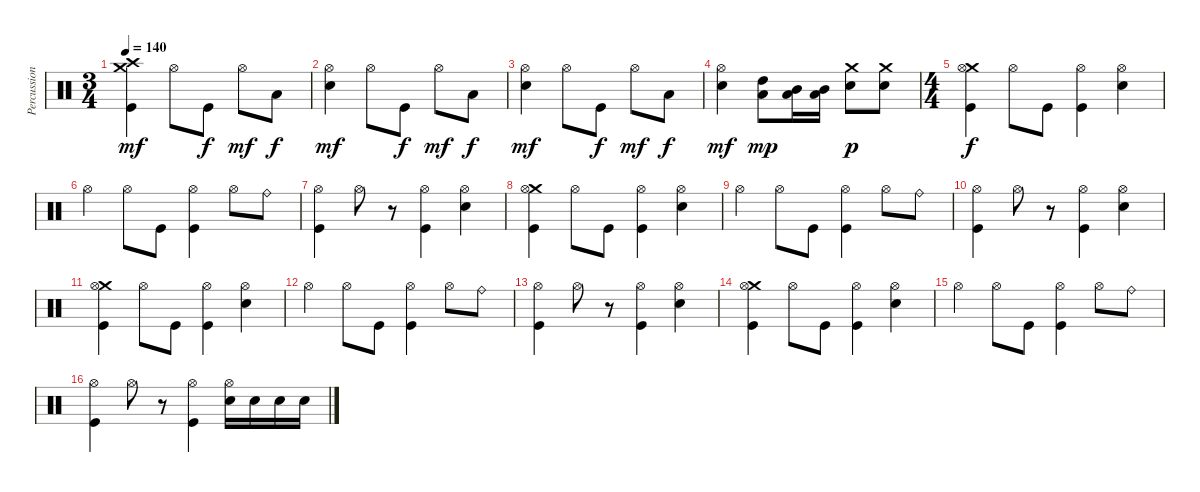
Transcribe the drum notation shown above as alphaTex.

\track ("Percussion" "Percussion") {instrument percussion}
\staff {score}
\articulation defaults
\ts (3 4)
\tempo 140
\clef neutral
\ks c
("Kick (hit)" "Crash high (hit)" "Crash medium (hit)").4{dy mf} "Hi-Hat (open)".8 "Kick (hit)".8{dy f} "Hi-Hat (open)".8{dy mf} "Low Floor Tom (hit)".8{dy f} |
("Electric Snare (hit)" "Hi-Hat (open)").4{dy mf} "Hi-Hat (open)".8 "Kick (hit)".8{dy f} "Hi-Hat (open)".8{dy mf} "Low Floor Tom (hit)".8{dy f} |
("Electric Snare (hit)" "Hi-Hat (open)").4{dy mf} "Hi-Hat (open)".8 "Kick (hit)".8{dy f} "Hi-Hat (open)".8{dy mf} "Low Floor Tom (hit)".8{dy f} |
("Electric Snare (hit)" "Hi-Hat (open)").4{dy mf} ("Low Tom (hit)" "High Tom (hit)").8{dy mp} ("Low Tom (hit)" "Mid Tom (hit)").16 ("Low Tom (hit)" "Mid Tom (hit)").16 ("Electric Snare (hit)" "Crash medium (hit)").8{dy p} ("Electric Snare (hit)" "Crash medium (hit)").8 |
\ts (4 4)
("Crash medium (hit)" "Hi-Hat (open)" "Kick (hit)").4{dy f} "Hi-Hat (open)".8 "Kick (hit)".8 ("Hi-Hat (open)" "Kick (hit)").4 ("Hi-Hat (open)" "Electric Snare (hit)").4 |
"Hi-Hat (open)".4 "Hi-Hat (open)".8 "Kick (hit)".8 ("Hi-Hat (open)" "Kick (hit)").4 "Hi-Hat (open)".8 "Ride (bell)".8 |
("Hi-Hat (open)" "Kick (hit)").4 "Hi-Hat (open)".8 r.8 ("Hi-Hat (open)" "Kick (hit)").4 ("Hi-Hat (open)" "Electric Snare (hit)").4 |
("Crash medium (hit)" "Hi-Hat (open)" "Kick (hit)").4 "Hi-Hat (open)".8 "Kick (hit)".8 ("Hi-Hat (open)" "Kick (hit)").4 ("Hi-Hat (open)" "Electric Snare (hit)").4 |
"Hi-Hat (open)".4 "Hi-Hat (open)".8 "Kick (hit)".8 ("Hi-Hat (open)" "Kick (hit)").4 "Hi-Hat (open)".8 "Ride (bell)".8 |
("Hi-Hat (open)" "Kick (hit)").4 "Hi-Hat (open)".8 r.8 ("Hi-Hat (open)" "Kick (hit)").4 ("Hi-Hat (open)" "Electric Snare (hit)").4 |
("Crash medium (hit)" "Hi-Hat (open)" "Kick (hit)").4 "Hi-Hat (open)".8 "Kick (hit)".8 ("Hi-Hat (open)" "Kick (hit)").4 ("Hi-Hat (open)" "Electric Snare (hit)").4 |
"Hi-Hat (open)".4 "Hi-Hat (open)".8 "Kick (hit)".8 ("Hi-Hat (open)" "Kick (hit)").4 "Hi-Hat (open)".8 "Ride (bell)".8 |
("Hi-Hat (open)" "Kick (hit)").4 "Hi-Hat (open)".8 r.8 ("Hi-Hat (open)" "Kick (hit)").4 ("Hi-Hat (open)" "Electric Snare (hit)").4 |
("Crash medium (hit)" "Hi-Hat (open)" "Kick (hit)").4 "Hi-Hat (open)".8 "Kick (hit)".8 ("Hi-Hat (open)" "Kick (hit)").4 ("Hi-Hat (open)" "Electric Snare (hit)").4 |
"Hi-Hat (open)".4 "Hi-Hat (open)".8 "Kick (hit)".8 ("Hi-Hat (open)" "Kick (hit)").4 "Hi-Hat (open)".8 "Ride (bell)".8 |
("Hi-Hat (open)" "Kick (hit)").4 "Hi-Hat (open)".8 r.8 ("Hi-Hat (open)" "Kick (hit)").4 ("Hi-Hat (open)" "Electric Snare (hit)").16 "Electric Snare (hit)".16 "Electric Snare (hit)".16 "Electric Snare (hit)".16
